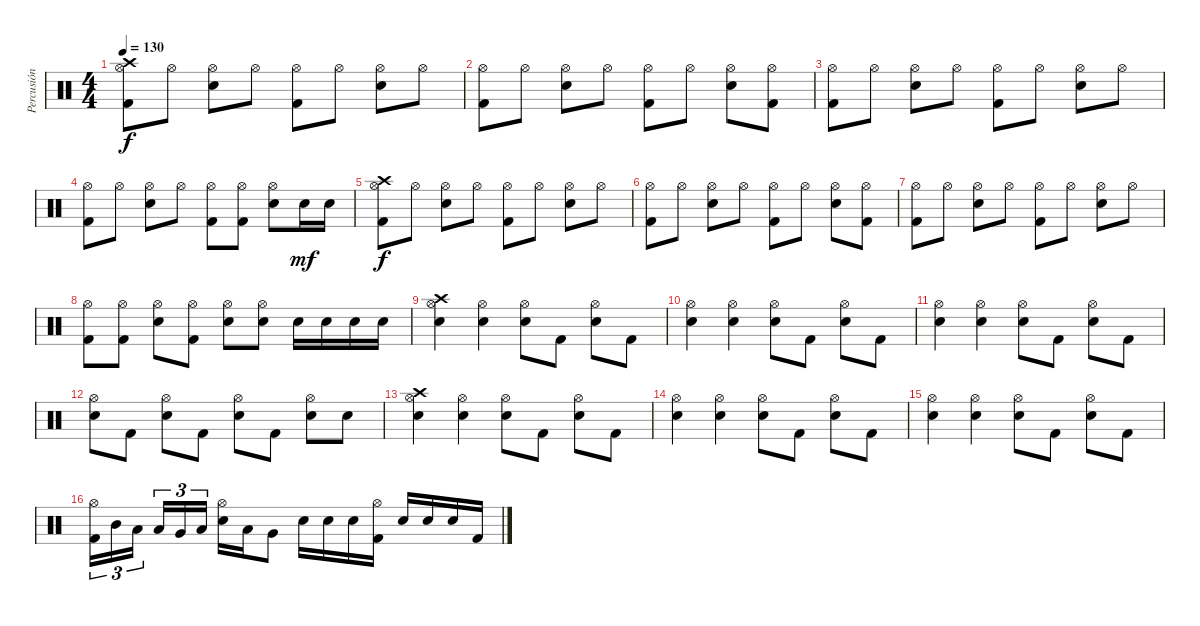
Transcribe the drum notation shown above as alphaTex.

\track ("Percusión" "Percusión") {instrument percussion}
\staff {score}
\articulation defaults
\ts (4 4)
\tempo 130
\clef neutral
\ks c
("Crash high (hit)" "Hi-Hat (open)" "Kick (hit) 2").8{dy f} "Hi-Hat (open)".8 ("Hi-Hat (open)" "Snare (hit) 2").8 "Hi-Hat (open)".8 ("Hi-Hat (open)" "Kick (hit) 2").8 "Hi-Hat (open)".8 ("Hi-Hat (open)" "Snare (hit) 2").8 "Hi-Hat (open)".8 |
("Hi-Hat (open)" "Kick (hit) 2").8 "Hi-Hat (open)".8 ("Hi-Hat (open)" "Snare (hit) 2").8 "Hi-Hat (open)".8 ("Hi-Hat (open)" "Kick (hit) 2").8 "Hi-Hat (open)".8 ("Hi-Hat (open)" "Snare (hit) 2").8 ("Hi-Hat (open)" "Kick (hit) 2").8 |
("Hi-Hat (open)" "Kick (hit) 2").8 "Hi-Hat (open)".8 ("Hi-Hat (open)" "Snare (hit) 2").8 "Hi-Hat (open)".8 ("Hi-Hat (open)" "Kick (hit) 2").8 "Hi-Hat (open)".8 ("Hi-Hat (open)" "Snare (hit) 2").8 "Hi-Hat (open)".8 |
("Hi-Hat (open)" "Kick (hit) 2").8 "Hi-Hat (open)".8 ("Hi-Hat (open)" "Snare (hit) 2").8 "Hi-Hat (open)".8 ("Hi-Hat (open)" "Kick (hit) 2").8 ("Hi-Hat (open)" "Kick (hit) 2").8 ("Hi-Hat (open)" "Snare (hit) 2").8 "Snare (hit) 2".16{dy mf} "Snare (hit) 2".16 |
("Crash high (hit)" "Hi-Hat (open)" "Kick (hit) 2").8{dy f} "Hi-Hat (open)".8 ("Hi-Hat (open)" "Snare (hit) 2").8 "Hi-Hat (open)".8 ("Hi-Hat (open)" "Kick (hit) 2").8 "Hi-Hat (open)".8 ("Hi-Hat (open)" "Snare (hit) 2").8 "Hi-Hat (open)".8 |
("Hi-Hat (open)" "Kick (hit) 2").8 "Hi-Hat (open)".8 ("Hi-Hat (open)" "Snare (hit) 2").8 "Hi-Hat (open)".8 ("Hi-Hat (open)" "Kick (hit) 2").8 "Hi-Hat (open)".8 ("Hi-Hat (open)" "Snare (hit) 2").8 ("Hi-Hat (open)" "Kick (hit) 2").8 |
("Hi-Hat (open)" "Kick (hit) 2").8 "Hi-Hat (open)".8 ("Hi-Hat (open)" "Snare (hit) 2").8 "Hi-Hat (open)".8 ("Hi-Hat (open)" "Kick (hit) 2").8 "Hi-Hat (open)".8 ("Hi-Hat (open)" "Snare (hit) 2").8 "Hi-Hat (open)".8 |
("Hi-Hat (open)" "Kick (hit) 2").8 ("Hi-Hat (open)" "Kick (hit) 2").8 ("Hi-Hat (open)" "Snare (hit) 2").8 ("Hi-Hat (open)" "Kick (hit) 2").8 ("Hi-Hat (open)" "Snare (hit) 2").8 ("Hi-Hat (open)" "Snare (hit) 2").8 "Snare (hit) 2".16 "Snare (hit) 2".16 "Snare (hit) 2".16 "Snare (hit) 2".16 |
("Crash high (hit)" "Hi-Hat (open)" "Snare (hit) 2").4 ("Hi-Hat (open)" "Snare (hit) 2").4 ("Hi-Hat (open)" "Snare (hit) 2").8 "Kick (hit) 2".8 ("Hi-Hat (open)" "Snare (hit) 2").8 "Kick (hit) 2".8 |
("Hi-Hat (open)" "Snare (hit) 2").4 ("Hi-Hat (open)" "Snare (hit) 2").4 ("Hi-Hat (open)" "Snare (hit) 2").8 "Kick (hit) 2".8 ("Hi-Hat (open)" "Snare (hit) 2").8 "Kick (hit) 2".8 |
("Hi-Hat (open)" "Snare (hit) 2").4 ("Hi-Hat (open)" "Snare (hit) 2").4 ("Hi-Hat (open)" "Snare (hit) 2").8 "Kick (hit) 2".8 ("Hi-Hat (open)" "Snare (hit) 2").8 "Kick (hit) 2".8 |
("Hi-Hat (open)" "Snare (hit) 2").8 "Kick (hit) 2".8 ("Hi-Hat (open)" "Snare (hit) 2").8 "Kick (hit) 2".8 ("Hi-Hat (open)" "Snare (hit) 2").8 "Kick (hit) 2".8 ("Hi-Hat (open)" "Snare (hit) 2").8 "Snare (hit) 2".8 |
("Crash high (hit)" "Hi-Hat (open)" "Snare (hit) 2").4 ("Hi-Hat (open)" "Snare (hit) 2").4 ("Hi-Hat (open)" "Snare (hit) 2").8 "Kick (hit) 2".8 ("Hi-Hat (open)" "Snare (hit) 2").8 "Kick (hit) 2".8 |
("Hi-Hat (open)" "Snare (hit) 2").4 ("Hi-Hat (open)" "Snare (hit) 2").4 ("Hi-Hat (open)" "Snare (hit) 2").8 "Kick (hit) 2".8 ("Hi-Hat (open)" "Snare (hit) 2").8 "Kick (hit) 2".8 |
("Hi-Hat (open)" "Snare (hit) 2").4 ("Hi-Hat (open)" "Snare (hit) 2").4 ("Hi-Hat (open)" "Snare (hit) 2").8 "Kick (hit) 2".8 ("Hi-Hat (open)" "Snare (hit) 2").8 "Kick (hit) 2".8 |
("Hi-Hat (open)" "Kick (hit) 2").16{tu (3 2)} "Mid Tom (hit)".16{tu (3 2)} "Low Tom (hit)".16{tu (3 2) beam splitsecondary} "Low Tom (hit)".16{tu (3 2)} "Very Low Tom (hit)".16{tu (3 2)} "Low Floor Tom (hit)".16{tu (3 2)} ("Hi-Hat (open)" "Snare (hit) 2").16 "Low Tom (hit)".16 "Very Low Tom (hit)".8 "Snare (hit) 2".16 "Snare (hit) 2".16 "Snare (hit) 2".16 ("Hi-Hat (open)" "Kick (hit) 2").16 "Snare (hit) 2".16 "Snare (hit) 2".16 "Snare (hit) 2".16 "Kick (hit) 2".16
